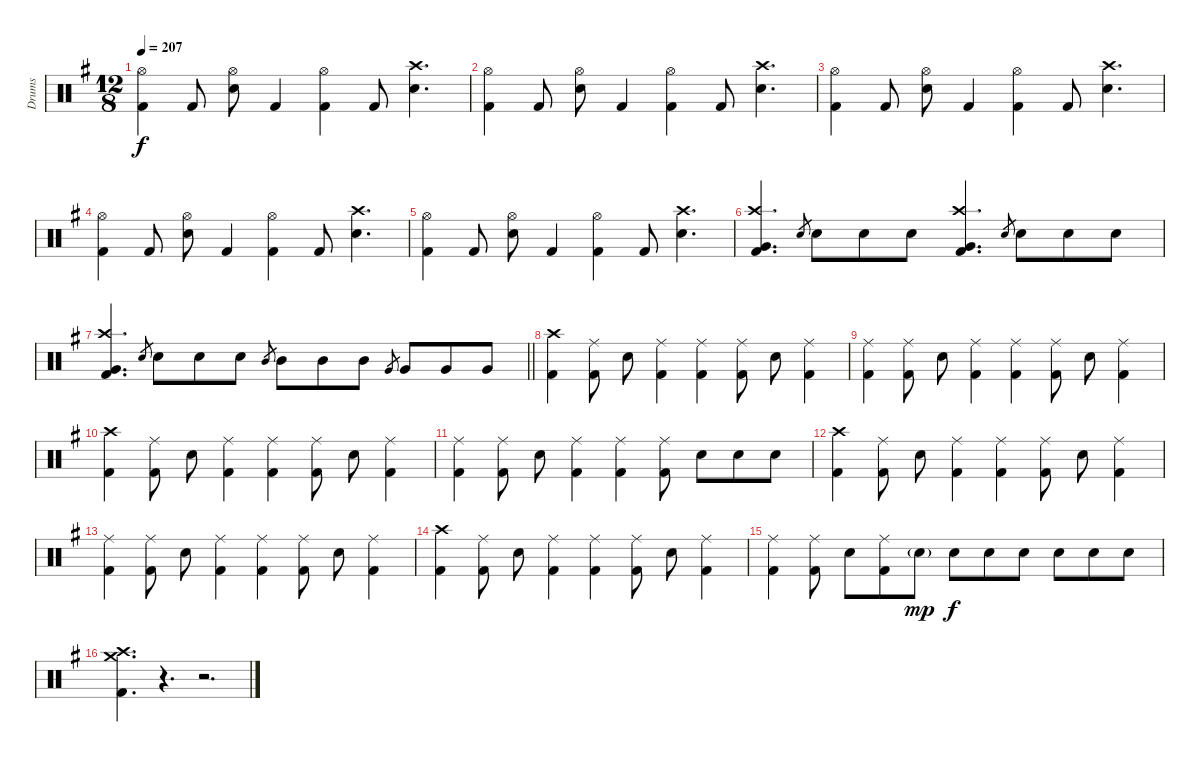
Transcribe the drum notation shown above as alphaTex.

\track ("Drums" "Drums") {instrument percussion}
\staff {score}
\articulation defaults
\ts (12 8)
\tempo 207
\clef neutral
\ks g
("Hi-Hat (open)" "Kick (hit) 2").4{dy f} "Kick (hit) 2".8 ("Hi-Hat (open)" "Electric Snare (hit)").8 "Kick (hit) 2".4 ("Hi-Hat (open)" "Kick (hit) 2").4 "Kick (hit) 2".8 ("Crash high (hit)" "Electric Snare (hit)").4{d} |
("Hi-Hat (open)" "Kick (hit) 2").4 "Kick (hit) 2".8 ("Hi-Hat (open)" "Electric Snare (hit)").8 "Kick (hit) 2".4 ("Hi-Hat (open)" "Kick (hit) 2").4 "Kick (hit) 2".8 ("Crash high (hit)" "Electric Snare (hit)").4{d} |
("Hi-Hat (open)" "Kick (hit) 2").4 "Kick (hit) 2".8 ("Hi-Hat (open)" "Electric Snare (hit)").8 "Kick (hit) 2".4 ("Hi-Hat (open)" "Kick (hit) 2").4 "Kick (hit) 2".8 ("Crash high (hit)" "Electric Snare (hit)").4{d} |
("Hi-Hat (open)" "Kick (hit) 2").4 "Kick (hit) 2".8 ("Hi-Hat (open)" "Electric Snare (hit)").8 "Kick (hit) 2".4 ("Hi-Hat (open)" "Kick (hit) 2").4 "Kick (hit) 2".8 ("Crash high (hit)" "Electric Snare (hit)").4{d} |
("Hi-Hat (open)" "Kick (hit) 2").4 "Kick (hit) 2".8 ("Hi-Hat (open)" "Electric Snare (hit)").8 "Kick (hit) 2".4 ("Hi-Hat (open)" "Kick (hit) 2").4 "Kick (hit) 2".8 ("Crash high (hit)" "Electric Snare (hit)").4{d} |
("Crash high (hit)" "Very Low Tom (hit)" "Kick (hit) 2").4{d} "Electric Snare (hit)".8{gr} "Electric Snare (hit)".8 "Electric Snare (hit)".8 "Electric Snare (hit)".8 ("Crash high (hit)" "Very Low Tom (hit)" "Kick (hit) 2").4{d} "Electric Snare (hit)".8{gr} "Electric Snare (hit)".8 "Electric Snare (hit)".8 "Electric Snare (hit)".8 |
\barLineRight lightlight
("Crash high (hit)" "Very Low Tom (hit)" "Kick (hit) 2").4{d} "Electric Snare (hit)".8{gr} "Electric Snare (hit)".8 "Electric Snare (hit)".8 "Electric Snare (hit)".8 "Mid Tom (hit)".8{gr} "Mid Tom (hit)".8 "Mid Tom (hit)".8 "Mid Tom (hit)".8 "Very Low Tom (hit)".8{gr} "Very Low Tom (hit)".8 "Very Low Tom (hit)".8 "Very Low Tom (hit)".8 |
\section ("" "")
("Crash high (hit)" "Kick (hit) 2").4 ("Ride (middle)" "Kick (hit) 2").8 "Electric Snare (hit)".8 ("Ride (middle)" "Kick (hit) 2").4 ("Ride (middle)" "Kick (hit) 2").4 ("Ride (middle)" "Kick (hit) 2").8 "Electric Snare (hit)".8 ("Ride (middle)" "Kick (hit) 2").4 |
("Ride (middle)" "Kick (hit) 2").4 ("Ride (middle)" "Kick (hit) 2").8 "Electric Snare (hit)".8 ("Ride (middle)" "Kick (hit) 2").4 ("Ride (middle)" "Kick (hit) 2").4 ("Ride (middle)" "Kick (hit) 2").8 "Electric Snare (hit)".8 ("Ride (middle)" "Kick (hit) 2").4 |
("Crash high (hit)" "Kick (hit) 2").4 ("Ride (middle)" "Kick (hit) 2").8 "Electric Snare (hit)".8 ("Ride (middle)" "Kick (hit) 2").4 ("Ride (middle)" "Kick (hit) 2").4 ("Ride (middle)" "Kick (hit) 2").8 "Electric Snare (hit)".8 ("Ride (middle)" "Kick (hit) 2").4 |
("Ride (middle)" "Kick (hit) 2").4 ("Ride (middle)" "Kick (hit) 2").8 "Electric Snare (hit)".8 ("Ride (middle)" "Kick (hit) 2").4 ("Ride (middle)" "Kick (hit) 2").4 ("Ride (middle)" "Kick (hit) 2").8 "Electric Snare (hit)".8 "Electric Snare (hit)".8 "Electric Snare (hit)".8 |
("Crash high (hit)" "Kick (hit) 2").4 ("Ride (middle)" "Kick (hit) 2").8 "Electric Snare (hit)".8 ("Ride (middle)" "Kick (hit) 2").4 ("Ride (middle)" "Kick (hit) 2").4 ("Ride (middle)" "Kick (hit) 2").8 "Electric Snare (hit)".8 ("Ride (middle)" "Kick (hit) 2").4 |
("Ride (middle)" "Kick (hit) 2").4 ("Ride (middle)" "Kick (hit) 2").8 "Electric Snare (hit)".8 ("Ride (middle)" "Kick (hit) 2").4 ("Ride (middle)" "Kick (hit) 2").4 ("Ride (middle)" "Kick (hit) 2").8 "Electric Snare (hit)".8 ("Ride (middle)" "Kick (hit) 2").4 |
("Crash high (hit)" "Kick (hit) 2").4 ("Ride (middle)" "Kick (hit) 2").8 "Electric Snare (hit)".8 ("Ride (middle)" "Kick (hit) 2").4 ("Ride (middle)" "Kick (hit) 2").4 ("Ride (middle)" "Kick (hit) 2").8 "Electric Snare (hit)".8 ("Ride (middle)" "Kick (hit) 2").4 |
("Ride (middle)" "Kick (hit) 2").4 ("Ride (middle)" "Kick (hit) 2").8 "Electric Snare (hit)".8 ("Ride (middle)" "Kick (hit) 2").8 "Electric Snare (hit)"{g}.8{dy mp} "Electric Snare (hit)".8{dy f} "Electric Snare (hit)".8 "Electric Snare (hit)".8 "Electric Snare (hit)".8 "Electric Snare (hit)".8 "Electric Snare (hit)".8 |
("Crash high (hit)" "Crash medium (hit)" "Kick (hit) 2").4{d} r.4{d} r.2{d}
